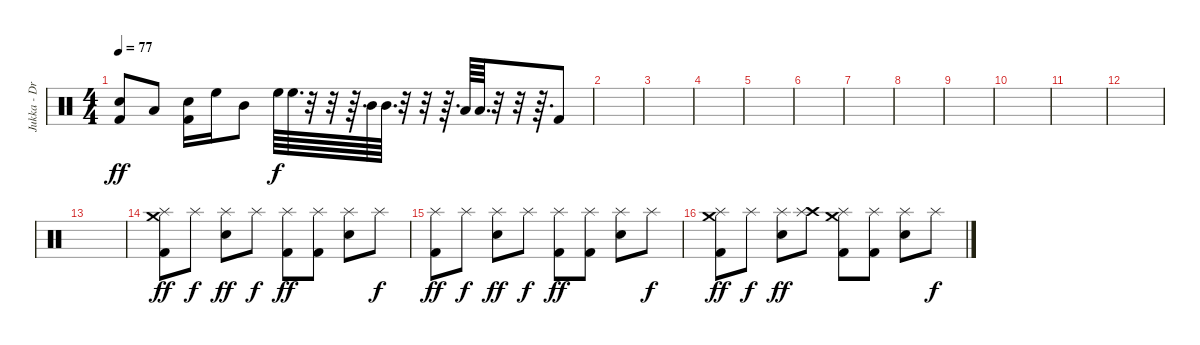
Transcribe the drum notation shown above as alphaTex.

\track ("Jukka - Drums" "Jukka - Dr") {instrument percussion}
\staff {score}
\articulation defaults
\ts (4 4)
\tempo 77
\clef neutral
\ks c
("Electric Snare (hit)" "Kick (hit) 2").8{dy ff} "Low Tom (hit)".8 ("Electric Snare (hit)" "Kick (hit) 2").16 "High Floor Tom (hit)".16 "Mid Tom (hit)".8 "High Floor Tom (hit)".64{dy f} "High Floor Tom (hit)".64{d} r.32 r.32 r.64{d} "Mid Tom (hit)".64 "Mid Tom (hit)".64{d} r.32 r.32 r.64{d} "Low Tom (hit)".64 "Low Tom (hit)".64{d} r.32 r.32 r.64{d} "Kick (hit) 2".8 |
|
|
|
|
|
|
|
|
|
|
|
|
("Crash medium (hit)" "Splash (hit)" "Kick (hit) 2").8{dy ff} "Splash (hit)".8{dy f} ("Splash (hit)" "Electric Snare (hit)").8{dy ff} "Splash (hit)".8{dy f} ("Splash (hit)" "Kick (hit) 2").8{dy ff} ("Splash (hit)" "Kick (hit) 2").8 ("Splash (hit)" "Electric Snare (hit)").8 "Splash (hit)".8{dy f} |
("Splash (hit)" "Kick (hit) 2").8{dy ff} "Splash (hit)".8{dy f} ("Splash (hit)" "Electric Snare (hit)").8{dy ff} "Splash (hit)".8{dy f} ("Splash (hit)" "Kick (hit) 2").8{dy ff} ("Splash (hit)" "Kick (hit) 2").8 ("Splash (hit)" "Electric Snare (hit)").8 "Splash (hit)".8{dy f} |
("Crash medium (hit)" "Splash (hit)" "Kick (hit) 2").8{dy ff} "Splash (hit)".8{dy f} ("Splash (hit)" "Electric Snare (hit)").8{dy ff} ("Crash high (hit)" "Splash (hit)").8 ("Crash medium (hit)" "Splash (hit)" "Kick (hit) 2").8 ("Splash (hit)" "Kick (hit) 2").8 ("Splash (hit)" "Electric Snare (hit)").8 "Splash (hit)".8{dy f}
